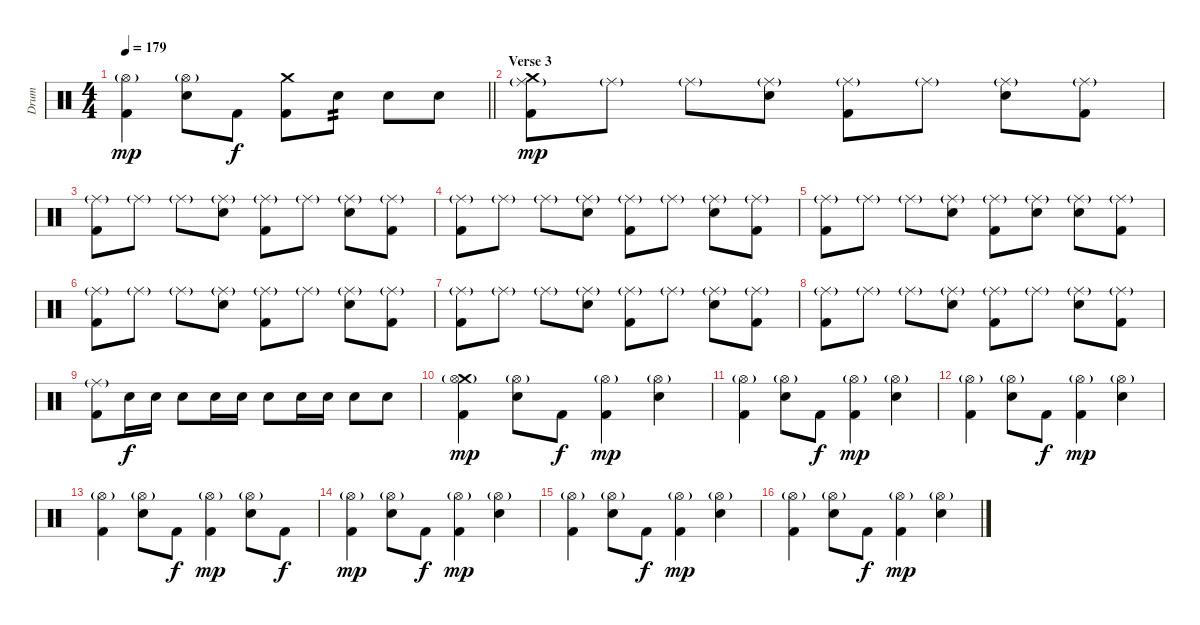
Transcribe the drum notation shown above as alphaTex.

\track ("Drum" "Drum") {instrument percussion}
\staff {score}
\articulation defaults
\ts (4 4)
\tempo 179
\clef neutral
\barLineRight lightlight
\ks c
("Hi-Hat (open)"{g} "Kick (hit) 2").4{dy mp} ("Hi-Hat (open)"{g} "Electric Snare (hit)").8 "Kick (hit) 2".8{dy f} ("Crash medium (hit)" "Kick (hit) 2").8 "Electric Snare (hit)".8{tp 2} "Electric Snare (hit)".8 "Electric Snare (hit)".8 |
\section ("" "Verse 3")
("Crash medium (hit)" "Ride (middle)"{g} "Kick (hit) 2").8{dy mp} "Ride (middle)"{g}.8 "Ride (middle)"{g}.8 ("Ride (middle)"{g} "Electric Snare (hit)").8 ("Ride (middle)"{g} "Kick (hit) 2").8 "Ride (middle)"{g}.8 ("Ride (middle)"{g} "Electric Snare (hit)").8 ("Ride (middle)"{g} "Kick (hit) 2").8 |
("Ride (middle)"{g} "Kick (hit) 2").8 "Ride (middle)"{g}.8 "Ride (middle)"{g}.8 ("Ride (middle)"{g} "Electric Snare (hit)").8 ("Ride (middle)"{g} "Kick (hit) 2").8 "Ride (middle)"{g}.8 ("Ride (middle)"{g} "Electric Snare (hit)").8 ("Ride (middle)"{g} "Kick (hit) 2").8 |
("Ride (middle)"{g} "Kick (hit) 2").8 "Ride (middle)"{g}.8 "Ride (middle)"{g}.8 ("Ride (middle)"{g} "Electric Snare (hit)").8 ("Ride (middle)"{g} "Kick (hit) 2").8 "Ride (middle)"{g}.8 ("Ride (middle)"{g} "Electric Snare (hit)").8 ("Ride (middle)"{g} "Kick (hit) 2").8 |
("Ride (middle)"{g} "Kick (hit) 2").8 "Ride (middle)"{g}.8 "Ride (middle)"{g}.8 ("Ride (middle)"{g} "Electric Snare (hit)").8 ("Ride (middle)"{g} "Kick (hit) 2").8 ("Ride (middle)"{g} "Electric Snare (hit)").8 ("Ride (middle)"{g} "Electric Snare (hit)").8 ("Ride (middle)"{g} "Kick (hit) 2").8 |
("Ride (middle)"{g} "Kick (hit) 2").8 "Ride (middle)"{g}.8 "Ride (middle)"{g}.8 ("Ride (middle)"{g} "Electric Snare (hit)").8 ("Ride (middle)"{g} "Kick (hit) 2").8 "Ride (middle)"{g}.8 ("Ride (middle)"{g} "Electric Snare (hit)").8 ("Ride (middle)"{g} "Kick (hit) 2").8 |
("Ride (middle)"{g} "Kick (hit) 2").8 "Ride (middle)"{g}.8 "Ride (middle)"{g}.8 ("Ride (middle)"{g} "Electric Snare (hit)").8 ("Ride (middle)"{g} "Kick (hit) 2").8 "Ride (middle)"{g}.8 ("Ride (middle)"{g} "Electric Snare (hit)").8 ("Ride (middle)"{g} "Kick (hit) 2").8 |
("Ride (middle)"{g} "Kick (hit) 2").8 "Ride (middle)"{g}.8 "Ride (middle)"{g}.8 ("Ride (middle)"{g} "Electric Snare (hit)").8 ("Ride (middle)"{g} "Kick (hit) 2").8 "Ride (middle)"{g}.8 ("Ride (middle)"{g} "Electric Snare (hit)").8 ("Ride (middle)"{g} "Kick (hit) 2").8 |
("Ride (middle)"{g} "Kick (hit) 2").8 "Electric Snare (hit)".16{dy f} "Electric Snare (hit)".16 "Electric Snare (hit)".8 "Electric Snare (hit)".16 "Electric Snare (hit)".16 "Electric Snare (hit)".8 "Electric Snare (hit)".16 "Electric Snare (hit)".16 "Electric Snare (hit)".8 "Electric Snare (hit)".8 |
("Crash medium (hit)" "Hi-Hat (open)"{g} "Kick (hit) 2").4{dy mp} ("Hi-Hat (open)"{g} "Electric Snare (hit)").8 "Kick (hit) 2".8{dy f} ("Hi-Hat (open)"{g} "Kick (hit) 2").4{dy mp} ("Hi-Hat (open)"{g} "Electric Snare (hit)").4 |
("Hi-Hat (open)"{g} "Kick (hit) 2").4 ("Hi-Hat (open)"{g} "Electric Snare (hit)").8 "Kick (hit) 2".8{dy f} ("Hi-Hat (open)"{g} "Kick (hit) 2").4{dy mp} ("Hi-Hat (open)"{g} "Electric Snare (hit)").4 |
("Hi-Hat (open)"{g} "Kick (hit) 2").4 ("Hi-Hat (open)"{g} "Electric Snare (hit)").8 "Kick (hit) 2".8{dy f} ("Hi-Hat (open)"{g} "Kick (hit) 2").4{dy mp} ("Hi-Hat (open)"{g} "Electric Snare (hit)").4 |
("Hi-Hat (open)"{g} "Kick (hit) 2").4 ("Hi-Hat (open)"{g} "Electric Snare (hit)").8 "Kick (hit) 2".8{dy f} ("Hi-Hat (open)"{g} "Kick (hit) 2").4{dy mp} ("Hi-Hat (open)"{g} "Electric Snare (hit)").8 "Kick (hit) 2".8{dy f} |
("Hi-Hat (open)"{g} "Kick (hit) 2").4{dy mp} ("Hi-Hat (open)"{g} "Electric Snare (hit)").8 "Kick (hit) 2".8{dy f} ("Hi-Hat (open)"{g} "Kick (hit) 2").4{dy mp} ("Hi-Hat (open)"{g} "Electric Snare (hit)").4 |
("Hi-Hat (open)"{g} "Kick (hit) 2").4 ("Hi-Hat (open)"{g} "Electric Snare (hit)").8 "Kick (hit) 2".8{dy f} ("Hi-Hat (open)"{g} "Kick (hit) 2").4{dy mp} ("Hi-Hat (open)"{g} "Electric Snare (hit)").4 |
("Hi-Hat (open)"{g} "Kick (hit) 2").4 ("Hi-Hat (open)"{g} "Electric Snare (hit)").8 "Kick (hit) 2".8{dy f} ("Hi-Hat (open)"{g} "Kick (hit) 2").4{dy mp} ("Hi-Hat (open)"{g} "Electric Snare (hit)").4
